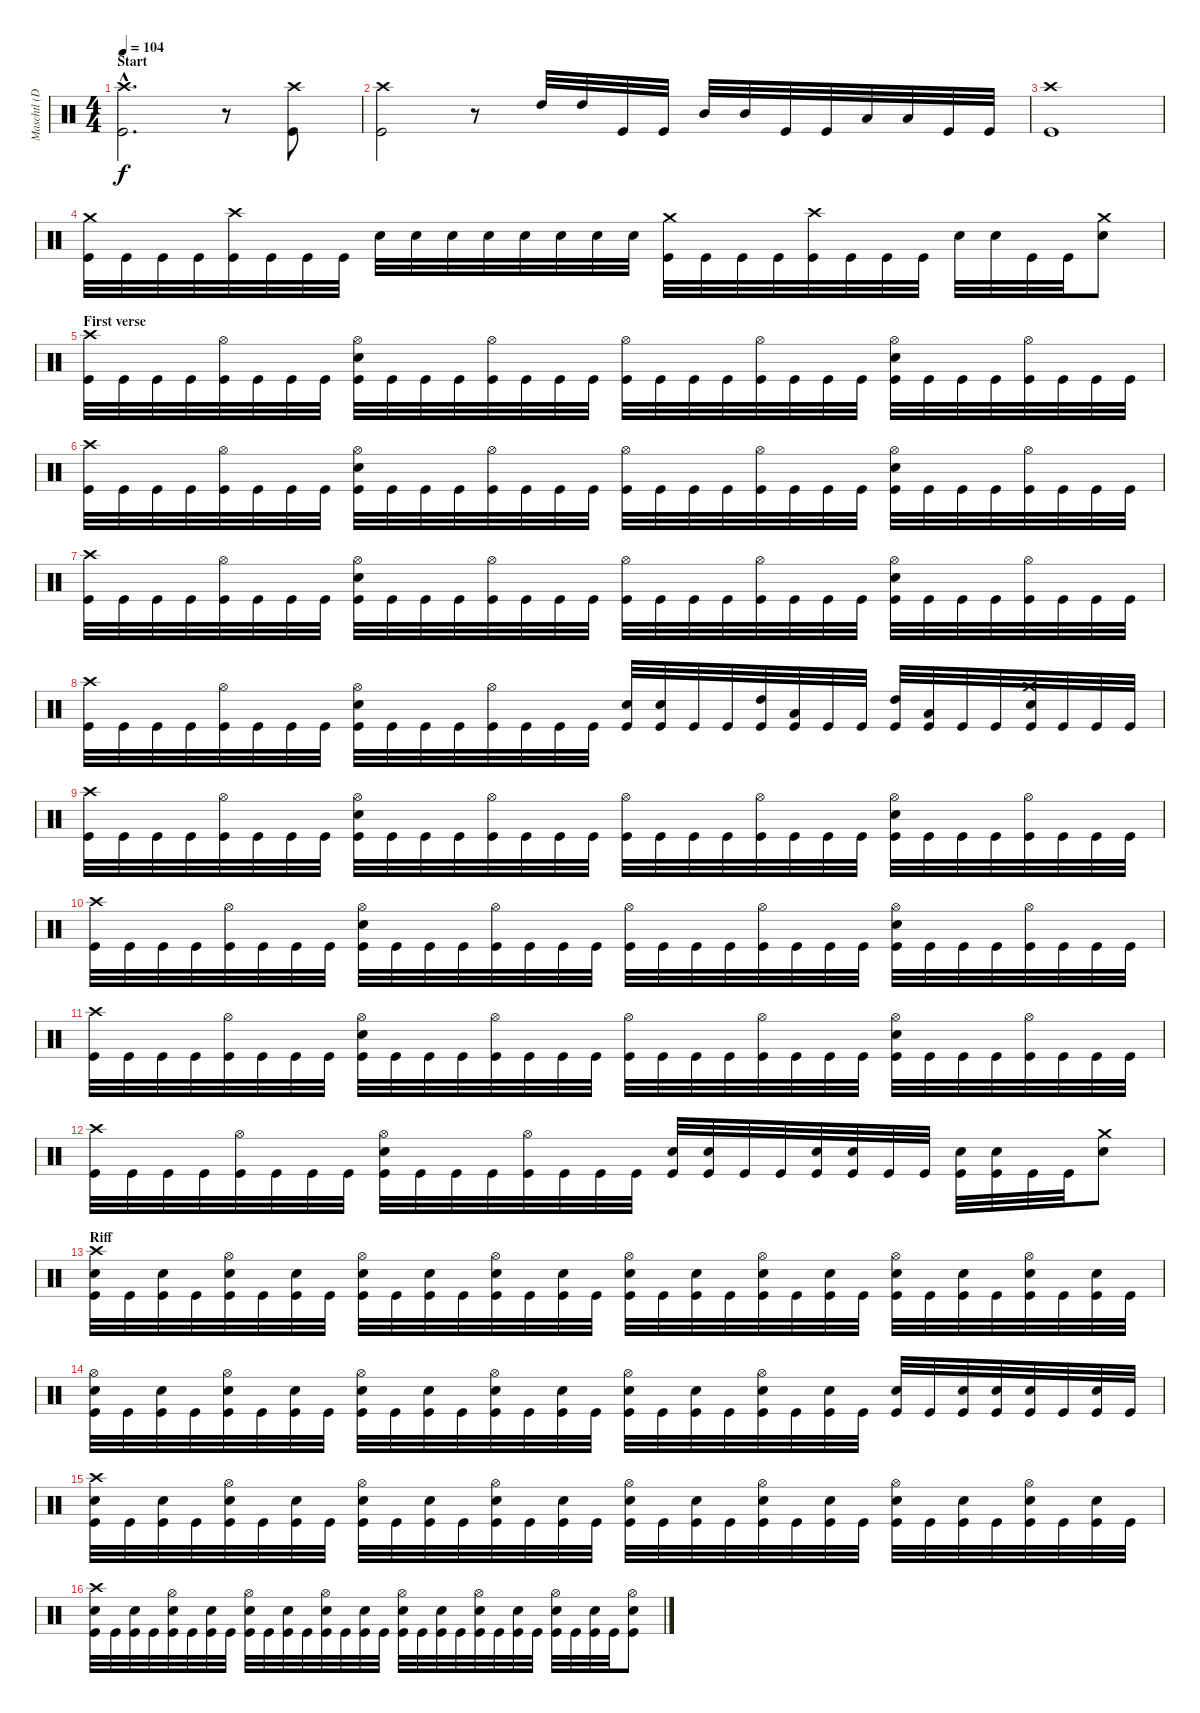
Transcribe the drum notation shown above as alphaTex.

\track ("Maschtl (Drums)" "Maschtl (D") {instrument percussion}
\staff {score}
\articulation defaults
\ts (4 4)
\section ("" "Start")
\tempo 104
\clef neutral
\ks c
("Crash high (hit)"{hac} "Kick (hit)"{hac}).2{d dy f} r.8 ("Crash high (hit)" "Kick (hit)").8 |
("Crash high (hit)" "Kick (hit)").2 r.8 "High Tom (hit)".32 "High Tom (hit)".32 "Kick (hit)".32 "Kick (hit)".32 "Mid Tom (hit)".32 "Mid Tom (hit)".32 "Kick (hit)".32 "Kick (hit)".32 "Low Tom (hit)".32 "Low Tom (hit)".32 "Kick (hit)".32 "Kick (hit)".32 |
("Crash high (hit)" "Kick (hit)").1 |
("Crash medium (hit)" "Kick (hit)").32 "Kick (hit)".32 "Kick (hit)".32 "Kick (hit)".32 ("Crash high (hit)" "Kick (hit)").32 "Kick (hit)".32 "Kick (hit)".32 "Kick (hit)".32 "Electric Snare (hit)".32 "Electric Snare (hit)".32 "Electric Snare (hit)".32 "Electric Snare (hit)".32 "Electric Snare (hit)".32 "Electric Snare (hit)".32 "Electric Snare (hit)".32 "Electric Snare (hit)".32 ("Crash medium (hit)" "Kick (hit)").32 "Kick (hit)".32 "Kick (hit)".32 "Kick (hit)".32 ("Crash high (hit)" "Kick (hit)").32 "Kick (hit)".32 "Kick (hit)".32 "Kick (hit)".32 "Electric Snare (hit)".32 "Electric Snare (hit)".32 "Kick (hit)".32 "Kick (hit)".32 ("Crash medium (hit)" "Electric Snare (hit)").8 |
\section ("" "First verse")
("Crash high (hit)" "Kick (hit)").32 "Kick (hit)".32 "Kick (hit)".32 "Kick (hit)".32 ("Hi-Hat (open)" "Kick (hit)").32 "Kick (hit)".32 "Kick (hit)".32 "Kick (hit)".32 ("Hi-Hat (open)" "Electric Snare (hit)" "Kick (hit)").32 "Kick (hit)".32 "Kick (hit)".32 "Kick (hit)".32 ("Hi-Hat (open)" "Kick (hit)").32 "Kick (hit)".32 "Kick (hit)".32 "Kick (hit)".32 ("Hi-Hat (open)" "Kick (hit)").32 "Kick (hit)".32 "Kick (hit)".32 "Kick (hit)".32 ("Hi-Hat (open)" "Kick (hit)").32 "Kick (hit)".32 "Kick (hit)".32 "Kick (hit)".32 ("Hi-Hat (open)" "Electric Snare (hit)" "Kick (hit)").32 "Kick (hit)".32 "Kick (hit)".32 "Kick (hit)".32 ("Hi-Hat (open)" "Kick (hit)").32 "Kick (hit)".32 "Kick (hit)".32 "Kick (hit)".32 |
("Crash high (hit)" "Kick (hit)").32 "Kick (hit)".32 "Kick (hit)".32 "Kick (hit)".32 ("Hi-Hat (open)" "Kick (hit)").32 "Kick (hit)".32 "Kick (hit)".32 "Kick (hit)".32 ("Hi-Hat (open)" "Electric Snare (hit)" "Kick (hit)").32 "Kick (hit)".32 "Kick (hit)".32 "Kick (hit)".32 ("Hi-Hat (open)" "Kick (hit)").32 "Kick (hit)".32 "Kick (hit)".32 "Kick (hit)".32 ("Hi-Hat (open)" "Kick (hit)").32 "Kick (hit)".32 "Kick (hit)".32 "Kick (hit)".32 ("Hi-Hat (open)" "Kick (hit)").32 "Kick (hit)".32 "Kick (hit)".32 "Kick (hit)".32 ("Hi-Hat (open)" "Electric Snare (hit)" "Kick (hit)").32 "Kick (hit)".32 "Kick (hit)".32 "Kick (hit)".32 ("Hi-Hat (open)" "Kick (hit)").32 "Kick (hit)".32 "Kick (hit)".32 "Kick (hit)".32 |
("Crash high (hit)" "Kick (hit)").32 "Kick (hit)".32 "Kick (hit)".32 "Kick (hit)".32 ("Hi-Hat (open)" "Kick (hit)").32 "Kick (hit)".32 "Kick (hit)".32 "Kick (hit)".32 ("Hi-Hat (open)" "Electric Snare (hit)" "Kick (hit)").32 "Kick (hit)".32 "Kick (hit)".32 "Kick (hit)".32 ("Hi-Hat (open)" "Kick (hit)").32 "Kick (hit)".32 "Kick (hit)".32 "Kick (hit)".32 ("Hi-Hat (open)" "Kick (hit)").32 "Kick (hit)".32 "Kick (hit)".32 "Kick (hit)".32 ("Hi-Hat (open)" "Kick (hit)").32 "Kick (hit)".32 "Kick (hit)".32 "Kick (hit)".32 ("Hi-Hat (open)" "Electric Snare (hit)" "Kick (hit)").32 "Kick (hit)".32 "Kick (hit)".32 "Kick (hit)".32 ("Hi-Hat (open)" "Kick (hit)").32 "Kick (hit)".32 "Kick (hit)".32 "Kick (hit)".32 |
("Crash high (hit)" "Kick (hit)").32 "Kick (hit)".32 "Kick (hit)".32 "Kick (hit)".32 ("Hi-Hat (open)" "Kick (hit)").32 "Kick (hit)".32 "Kick (hit)".32 "Kick (hit)".32 ("Hi-Hat (open)" "Electric Snare (hit)" "Kick (hit)").32 "Kick (hit)".32 "Kick (hit)".32 "Kick (hit)".32 ("Hi-Hat (open)" "Kick (hit)").32 "Kick (hit)".32 "Kick (hit)".32 "Kick (hit)".32 ("Electric Snare (hit)" "Kick (hit)").32 ("Electric Snare (hit)" "Kick (hit)").32 "Kick (hit)".32 "Kick (hit)".32 ("High Tom (hit)" "Kick (hit)").32 ("Low Tom (hit)" "Kick (hit)").32 "Kick (hit)".32 "Kick (hit)".32 ("High Tom (hit)" "Kick (hit)").32 ("Low Tom (hit)" "Kick (hit)").32 "Kick (hit)".32 "Kick (hit)".32 ("Crash medium (hit)" "Electric Snare (hit)" "Kick (hit)").32 "Kick (hit)".32 "Kick (hit)".32 "Kick (hit)".32 |
("Crash high (hit)" "Kick (hit)").32 "Kick (hit)".32 "Kick (hit)".32 "Kick (hit)".32 ("Hi-Hat (open)" "Kick (hit)").32 "Kick (hit)".32 "Kick (hit)".32 "Kick (hit)".32 ("Hi-Hat (open)" "Electric Snare (hit)" "Kick (hit)").32 "Kick (hit)".32 "Kick (hit)".32 "Kick (hit)".32 ("Hi-Hat (open)" "Kick (hit)").32 "Kick (hit)".32 "Kick (hit)".32 "Kick (hit)".32 ("Hi-Hat (open)" "Kick (hit)").32 "Kick (hit)".32 "Kick (hit)".32 "Kick (hit)".32 ("Hi-Hat (open)" "Kick (hit)").32 "Kick (hit)".32 "Kick (hit)".32 "Kick (hit)".32 ("Hi-Hat (open)" "Electric Snare (hit)" "Kick (hit)").32 "Kick (hit)".32 "Kick (hit)".32 "Kick (hit)".32 ("Hi-Hat (open)" "Kick (hit)").32 "Kick (hit)".32 "Kick (hit)".32 "Kick (hit)".32 |
("Crash high (hit)" "Kick (hit)").32 "Kick (hit)".32 "Kick (hit)".32 "Kick (hit)".32 ("Hi-Hat (open)" "Kick (hit)").32 "Kick (hit)".32 "Kick (hit)".32 "Kick (hit)".32 ("Hi-Hat (open)" "Electric Snare (hit)" "Kick (hit)").32 "Kick (hit)".32 "Kick (hit)".32 "Kick (hit)".32 ("Hi-Hat (open)" "Kick (hit)").32 "Kick (hit)".32 "Kick (hit)".32 "Kick (hit)".32 ("Hi-Hat (open)" "Kick (hit)").32 "Kick (hit)".32 "Kick (hit)".32 "Kick (hit)".32 ("Hi-Hat (open)" "Kick (hit)").32 "Kick (hit)".32 "Kick (hit)".32 "Kick (hit)".32 ("Hi-Hat (open)" "Electric Snare (hit)" "Kick (hit)").32 "Kick (hit)".32 "Kick (hit)".32 "Kick (hit)".32 ("Hi-Hat (open)" "Kick (hit)").32 "Kick (hit)".32 "Kick (hit)".32 "Kick (hit)".32 |
("Crash high (hit)" "Kick (hit)").32 "Kick (hit)".32 "Kick (hit)".32 "Kick (hit)".32 ("Hi-Hat (open)" "Kick (hit)").32 "Kick (hit)".32 "Kick (hit)".32 "Kick (hit)".32 ("Hi-Hat (open)" "Electric Snare (hit)" "Kick (hit)").32 "Kick (hit)".32 "Kick (hit)".32 "Kick (hit)".32 ("Hi-Hat (open)" "Kick (hit)").32 "Kick (hit)".32 "Kick (hit)".32 "Kick (hit)".32 ("Hi-Hat (open)" "Kick (hit)").32 "Kick (hit)".32 "Kick (hit)".32 "Kick (hit)".32 ("Hi-Hat (open)" "Kick (hit)").32 "Kick (hit)".32 "Kick (hit)".32 "Kick (hit)".32 ("Hi-Hat (open)" "Electric Snare (hit)" "Kick (hit)").32 "Kick (hit)".32 "Kick (hit)".32 "Kick (hit)".32 ("Hi-Hat (open)" "Kick (hit)").32 "Kick (hit)".32 "Kick (hit)".32 "Kick (hit)".32 |
("Crash high (hit)" "Kick (hit)").32 "Kick (hit)".32 "Kick (hit)".32 "Kick (hit)".32 ("Hi-Hat (open)" "Kick (hit)").32 "Kick (hit)".32 "Kick (hit)".32 "Kick (hit)".32 ("Hi-Hat (open)" "Electric Snare (hit)" "Kick (hit)").32 "Kick (hit)".32 "Kick (hit)".32 "Kick (hit)".32 ("Hi-Hat (open)" "Kick (hit)").32 "Kick (hit)".32 "Kick (hit)".32 "Kick (hit)".32 ("Electric Snare (hit)" "Kick (hit)").32 ("Electric Snare (hit)" "Kick (hit)").32 "Kick (hit)".32 "Kick (hit)".32 ("Electric Snare (hit)" "Kick (hit)").32 ("Electric Snare (hit)" "Kick (hit)").32 "Kick (hit)".32 "Kick (hit)".32 ("Electric Snare (hit)" "Kick (hit)").32 ("Electric Snare (hit)" "Kick (hit)").32 "Kick (hit)".32 "Kick (hit)".32 ("Crash medium (hit)" "Electric Snare (hit)").8 |
\section ("" "Riff")
("Crash high (hit)" "Electric Snare (hit)" "Kick (hit)").32 "Kick (hit)".32 ("Electric Snare (hit)" "Kick (hit)").32 "Kick (hit)".32 ("Hi-Hat (open)" "Electric Snare (hit)" "Kick (hit)").32 "Kick (hit)".32 ("Electric Snare (hit)" "Kick (hit)").32 "Kick (hit)".32 ("Hi-Hat (open)" "Electric Snare (hit)" "Kick (hit)").32 "Kick (hit)".32 ("Electric Snare (hit)" "Kick (hit)").32 "Kick (hit)".32 ("Hi-Hat (open)" "Electric Snare (hit)" "Kick (hit)").32 "Kick (hit)".32 ("Electric Snare (hit)" "Kick (hit)").32 "Kick (hit)".32 ("Hi-Hat (open)" "Electric Snare (hit)" "Kick (hit)").32 "Kick (hit)".32 ("Electric Snare (hit)" "Kick (hit)").32 "Kick (hit)".32 ("Hi-Hat (open)" "Electric Snare (hit)" "Kick (hit)").32 "Kick (hit)".32 ("Electric Snare (hit)" "Kick (hit)").32 "Kick (hit)".32 ("Hi-Hat (open)" "Electric Snare (hit)" "Kick (hit)").32 "Kick (hit)".32 ("Electric Snare (hit)" "Kick (hit)").32 "Kick (hit)".32 ("Hi-Hat (open)" "Electric Snare (hit)" "Kick (hit)").32 "Kick (hit)".32 ("Electric Snare (hit)" "Kick (hit)").32 "Kick (hit)".32 |
("Hi-Hat (open)" "Electric Snare (hit)" "Kick (hit)").32 "Kick (hit)".32 ("Electric Snare (hit)" "Kick (hit)").32 "Kick (hit)".32 ("Hi-Hat (open)" "Electric Snare (hit)" "Kick (hit)").32 "Kick (hit)".32 ("Electric Snare (hit)" "Kick (hit)").32 "Kick (hit)".32 ("Hi-Hat (open)" "Electric Snare (hit)" "Kick (hit)").32 "Kick (hit)".32 ("Electric Snare (hit)" "Kick (hit)").32 "Kick (hit)".32 ("Hi-Hat (open)" "Electric Snare (hit)" "Kick (hit)").32 "Kick (hit)".32 ("Electric Snare (hit)" "Kick (hit)").32 "Kick (hit)".32 ("Hi-Hat (open)" "Electric Snare (hit)" "Kick (hit)").32 "Kick (hit)".32 ("Electric Snare (hit)" "Kick (hit)").32 "Kick (hit)".32 ("Hi-Hat (open)" "Electric Snare (hit)" "Kick (hit)").32 "Kick (hit)".32 ("Electric Snare (hit)" "Kick (hit)").32 "Kick (hit)".32 ("Electric Snare (hit)" "Kick (hit)").32 "Kick (hit)".32 ("Electric Snare (hit)" "Kick (hit)").32 ("Electric Snare (hit)" "Kick (hit)").32 ("Electric Snare (hit)" "Kick (hit)").32 "Kick (hit)".32 ("Electric Snare (hit)" "Kick (hit)").32 "Kick (hit)".32 |
("Crash high (hit)" "Electric Snare (hit)" "Kick (hit)").32 "Kick (hit)".32 ("Electric Snare (hit)" "Kick (hit)").32 "Kick (hit)".32 ("Hi-Hat (open)" "Electric Snare (hit)" "Kick (hit)").32 "Kick (hit)".32 ("Electric Snare (hit)" "Kick (hit)").32 "Kick (hit)".32 ("Hi-Hat (open)" "Electric Snare (hit)" "Kick (hit)").32 "Kick (hit)".32 ("Electric Snare (hit)" "Kick (hit)").32 "Kick (hit)".32 ("Hi-Hat (open)" "Electric Snare (hit)" "Kick (hit)").32 "Kick (hit)".32 ("Electric Snare (hit)" "Kick (hit)").32 "Kick (hit)".32 ("Hi-Hat (open)" "Electric Snare (hit)" "Kick (hit)").32 "Kick (hit)".32 ("Electric Snare (hit)" "Kick (hit)").32 "Kick (hit)".32 ("Hi-Hat (open)" "Electric Snare (hit)" "Kick (hit)").32 "Kick (hit)".32 ("Electric Snare (hit)" "Kick (hit)").32 "Kick (hit)".32 ("Hi-Hat (open)" "Electric Snare (hit)" "Kick (hit)").32 "Kick (hit)".32 ("Electric Snare (hit)" "Kick (hit)").32 "Kick (hit)".32 ("Hi-Hat (open)" "Electric Snare (hit)" "Kick (hit)").32 "Kick (hit)".32 ("Electric Snare (hit)" "Kick (hit)").32 "Kick (hit)".32 |
("Crash high (hit)" "Electric Snare (hit)" "Kick (hit)").32 "Kick (hit)".32 ("Electric Snare (hit)" "Kick (hit)").32 "Kick (hit)".32 ("Hi-Hat (open)" "Electric Snare (hit)" "Kick (hit)").32 "Kick (hit)".32 ("Electric Snare (hit)" "Kick (hit)").32 "Kick (hit)".32 ("Hi-Hat (open)" "Electric Snare (hit)" "Kick (hit)").32 "Kick (hit)".32 ("Electric Snare (hit)" "Kick (hit)").32 "Kick (hit)".32 ("Hi-Hat (open)" "Electric Snare (hit)" "Kick (hit)").32 "Kick (hit)".32 ("Electric Snare (hit)" "Kick (hit)").32 "Kick (hit)".32 ("Hi-Hat (open)" "Electric Snare (hit)" "Kick (hit)").32 "Kick (hit)".32 ("Electric Snare (hit)" "Kick (hit)").32 "Kick (hit)".32 ("Hi-Hat (open)" "Electric Snare (hit)" "Kick (hit)").32 "Kick (hit)".32 ("Electric Snare (hit)" "Kick (hit)").32 "Kick (hit)".32 ("Hi-Hat (open)" "Electric Snare (hit)" "Kick (hit)").32 "Kick (hit)".32 ("Electric Snare (hit)" "Kick (hit)").32 "Kick (hit)".32 ("Hi-Hat (open)" "Electric Snare (hit)" "Kick (hit)").8
